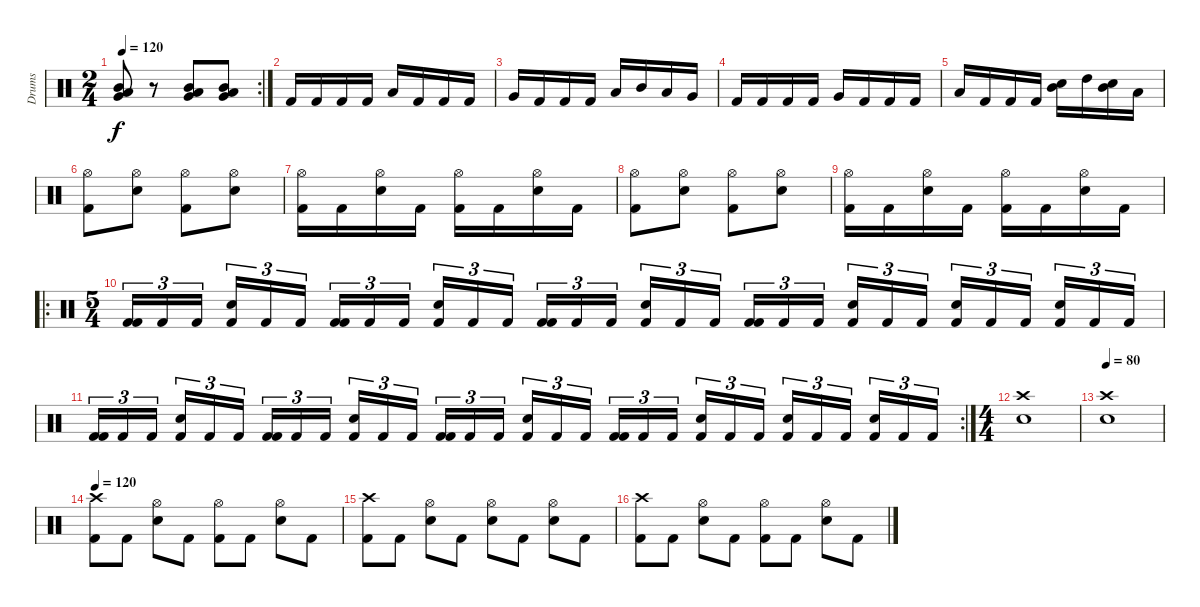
\track ("Drums" "Drums") {instrument percussion}
\staff {score}
\articulation defaults
\rc 2
\ts (2 4)
\tempo 120
\clef neutral
\ks c
("Mid Tom (hit)" "Low Floor Tom (hit)" "Very Low Tom (hit)").8{dy f} r.8 ("Mid Tom (hit)" "Low Floor Tom (hit)" "Very Low Tom (hit)").8 ("Mid Tom (hit)" "Low Floor Tom (hit)" "Very Low Tom (hit)").8 |
"Kick (hit) 2".16 "Kick (hit) 2".16 "Kick (hit) 2".16 "Kick (hit) 2".16 "Low Floor Tom (hit)".16 "Kick (hit) 2".16 "Kick (hit) 2".16 "Kick (hit) 2".16 |
"Very Low Tom (hit)".16 "Kick (hit) 2".16 "Kick (hit) 2".16 "Kick (hit) 2".16 "Low Tom (hit)".16 "Mid Tom (hit)".16 "Low Tom (hit)".16 "Very Low Tom (hit)".16 |
"Kick (hit) 2".16 "Kick (hit) 2".16 "Kick (hit) 2".16 "Kick (hit) 2".16 "Very Low Tom (hit)".16 "Kick (hit) 2".16 "Kick (hit) 2".16 "Kick (hit) 2".16 |
"Low Tom (hit)".16 "Kick (hit) 2".16 "Kick (hit) 2".16 "Kick (hit) 2".16 ("Electric Snare (hit)" "Mid Tom (hit)").16 "High Tom (hit)".16 ("Electric Snare (hit)" "Mid Tom (hit)").16 "Low Tom (hit)".16 |
("Hi-Hat (open)" "Kick (hit) 2").8 ("Hi-Hat (open)" "Electric Snare (hit)").8 ("Hi-Hat (open)" "Kick (hit) 2").8 ("Hi-Hat (open)" "Electric Snare (hit)").8 |
("Hi-Hat (open)" "Kick (hit) 2").16 "Kick (hit) 2".16 ("Hi-Hat (open)" "Electric Snare (hit)").16 "Kick (hit) 2".16 ("Hi-Hat (open)" "Kick (hit) 2").16 "Kick (hit) 2".16 ("Hi-Hat (open)" "Electric Snare (hit)").16 "Kick (hit) 2".16 |
("Hi-Hat (open)" "Kick (hit) 2").8 ("Hi-Hat (open)" "Electric Snare (hit)").8 ("Hi-Hat (open)" "Kick (hit) 2").8 ("Hi-Hat (open)" "Electric Snare (hit)").8 |
("Hi-Hat (open)" "Kick (hit) 2").16 "Kick (hit) 2".16 ("Hi-Hat (open)" "Electric Snare (hit)").16 "Kick (hit) 2".16 ("Hi-Hat (open)" "Kick (hit) 2").16 "Kick (hit) 2".16 ("Hi-Hat (open)" "Electric Snare (hit)").16 "Kick (hit) 2".16 |
\ro
\ts (5 4)
("Kick (hit) 2" "Kick (hit) 2").16{tu (3 2)} "Kick (hit) 2".16{tu (3 2)} "Kick (hit) 2".16{tu (3 2)} ("Electric Snare (hit)" "Kick (hit) 2").16{tu (3 2)} "Kick (hit) 2".16{tu (3 2)} "Kick (hit) 2".16{tu (3 2)} ("Kick (hit) 2" "Kick (hit) 2").16{tu (3 2)} "Kick (hit) 2".16{tu (3 2)} "Kick (hit) 2".16{tu (3 2)} ("Electric Snare (hit)" "Kick (hit) 2").16{tu (3 2)} "Kick (hit) 2".16{tu (3 2)} "Kick (hit) 2".16{tu (3 2)} ("Kick (hit) 2" "Kick (hit) 2").16{tu (3 2)} "Kick (hit) 2".16{tu (3 2)} "Kick (hit) 2".16{tu (3 2)} ("Electric Snare (hit)" "Kick (hit) 2").16{tu (3 2)} "Kick (hit) 2".16{tu (3 2)} "Kick (hit) 2".16{tu (3 2)} ("Kick (hit) 2" "Kick (hit) 2").16{tu (3 2)} "Kick (hit) 2".16{tu (3 2)} "Kick (hit) 2".16{tu (3 2)} ("Electric Snare (hit)" "Kick (hit) 2").16{tu (3 2)} "Kick (hit) 2".16{tu (3 2)} "Kick (hit) 2".16{tu (3 2)} ("Electric Snare (hit)" "Kick (hit) 2").16{tu (3 2)} "Kick (hit) 2".16{tu (3 2)} "Kick (hit) 2".16{tu (3 2)} ("Electric Snare (hit)" "Kick (hit) 2").16{tu (3 2)} "Kick (hit) 2".16{tu (3 2)} "Kick (hit) 2".16{tu (3 2)} |
\rc 2
("Kick (hit) 2" "Kick (hit) 2").16{tu (3 2)} "Kick (hit) 2".16{tu (3 2)} "Kick (hit) 2".16{tu (3 2)} ("Electric Snare (hit)" "Kick (hit) 2").16{tu (3 2)} "Kick (hit) 2".16{tu (3 2)} "Kick (hit) 2".16{tu (3 2)} ("Kick (hit) 2" "Kick (hit) 2").16{tu (3 2)} "Kick (hit) 2".16{tu (3 2)} "Kick (hit) 2".16{tu (3 2)} ("Electric Snare (hit)" "Kick (hit) 2").16{tu (3 2)} "Kick (hit) 2".16{tu (3 2)} "Kick (hit) 2".16{tu (3 2)} ("Kick (hit) 2" "Kick (hit) 2").16{tu (3 2)} "Kick (hit) 2".16{tu (3 2)} "Kick (hit) 2".16{tu (3 2)} ("Electric Snare (hit)" "Kick (hit) 2").16{tu (3 2)} "Kick (hit) 2".16{tu (3 2)} "Kick (hit) 2".16{tu (3 2)} ("Kick (hit) 2" "Kick (hit) 2").16{tu (3 2)} "Kick (hit) 2".16{tu (3 2)} "Kick (hit) 2".16{tu (3 2)} ("Electric Snare (hit)" "Kick (hit) 2").16{tu (3 2)} "Kick (hit) 2".16{tu (3 2)} "Kick (hit) 2".16{tu (3 2)} ("Electric Snare (hit)" "Kick (hit) 2").16{tu (3 2)} "Kick (hit) 2".16{tu (3 2)} "Kick (hit) 2".16{tu (3 2)} ("Electric Snare (hit)" "Kick (hit) 2").16{tu (3 2)} "Kick (hit) 2".16{tu (3 2)} "Kick (hit) 2".16{tu (3 2)} |
\ts (4 4)
("Crash high (hit)" "Electric Snare (hit)").1 |
\tempo 80
("Crash high (hit)" "Electric Snare (hit)").1 |
\tempo 120
("Crash high (hit)" "Kick (hit) 2").8 "Kick (hit) 2".8 ("Hi-Hat (open)" "Electric Snare (hit)").8 "Kick (hit) 2".8 ("Hi-Hat (open)" "Kick (hit) 2").8 "Kick (hit) 2".8 ("Hi-Hat (open)" "Electric Snare (hit)").8 "Kick (hit) 2".8 |
("Crash high (hit)" "Kick (hit) 2").8 "Kick (hit) 2".8 ("Hi-Hat (open)" "Electric Snare (hit)").8 "Kick (hit) 2".8 ("Hi-Hat (open)" "Electric Snare (hit)").8 "Kick (hit) 2".8 ("Hi-Hat (open)" "Electric Snare (hit)").8 "Kick (hit) 2".8 |
("Crash high (hit)" "Kick (hit) 2").8 "Kick (hit) 2".8 ("Hi-Hat (open)" "Electric Snare (hit)").8 "Kick (hit) 2".8 ("Hi-Hat (open)" "Kick (hit) 2").8 "Kick (hit) 2".8 ("Hi-Hat (open)" "Electric Snare (hit)").8 "Kick (hit) 2".8
